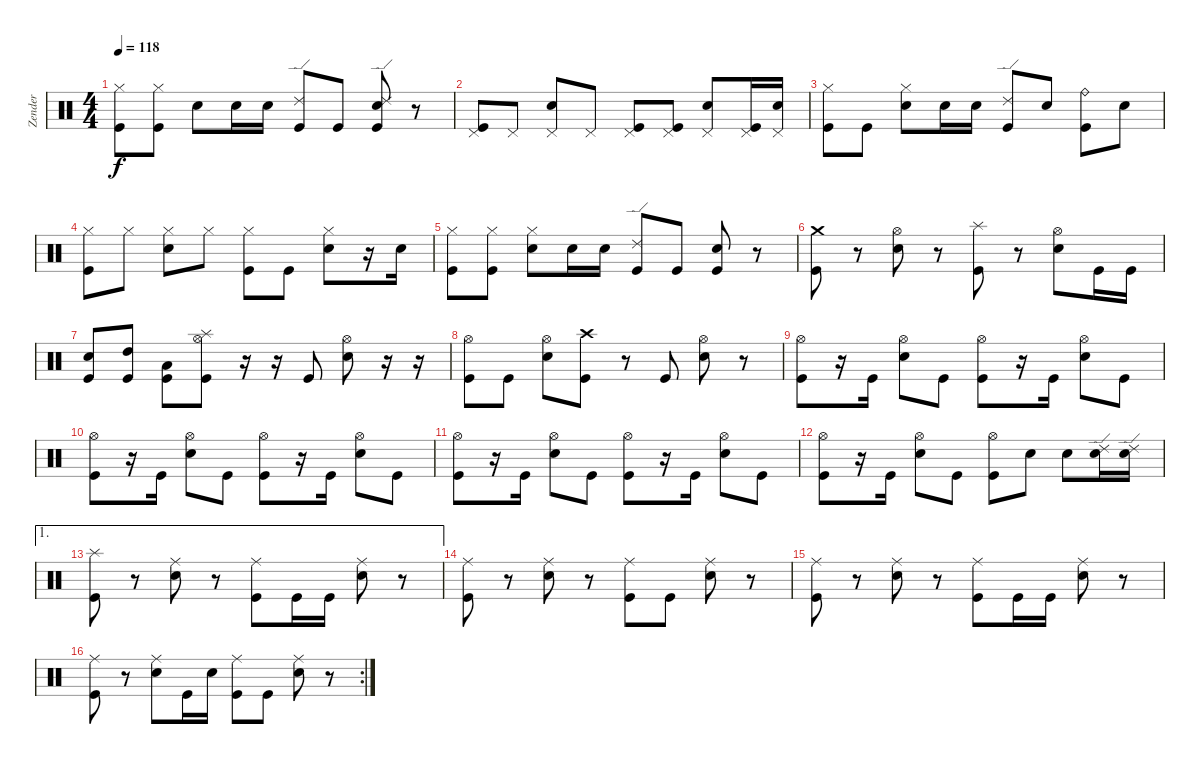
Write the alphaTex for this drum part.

\track ("Zender" "Zender") {instrument percussion}
\staff {score}
\articulation defaults
\ts (4 4)
\tempo 118
\clef neutral
\ks c
("Hi-Hat (closed)" "Kick (hit)").8{dy f} ("Hi-Hat (closed)" "Kick (hit)").8 "Snare (hit) 2".8 "Snare (hit) 2".16 "Snare (hit) 2".16 ("Ride (edge) 2" "Kick (hit)").8 "Kick (hit)".8 ("Ride (edge) 2" "Snare (hit) 2" "Kick (hit)").8 r.8 |
("Pedal Hi-Hat (hit)" "Kick (hit)").8 "Pedal Hi-Hat (hit)".8 ("Pedal Hi-Hat (hit)" "Snare (hit) 2").8 "Pedal Hi-Hat (hit)".8 ("Pedal Hi-Hat (hit)" "Kick (hit)").8 ("Pedal Hi-Hat (hit)" "Kick (hit)").8 ("Pedal Hi-Hat (hit)" "Snare (hit) 2").8 ("Pedal Hi-Hat (hit)" "Kick (hit)").16 ("Pedal Hi-Hat (hit)" "Snare (hit) 2").16 |
("Hi-Hat (closed)" "Kick (hit)").8 "Kick (hit)".8 ("Hi-Hat (closed)" "Snare (hit) 2").8 "Snare (hit) 2".16 "Snare (hit) 2".16 ("Ride (edge) 2" "Kick (hit)").8 "Snare (hit) 2".8 ("Ride (bell)" "Kick (hit)").8 "Snare (hit) 2".8 |
("Hi-Hat (closed)" "Kick (hit)").8 "Hi-Hat (closed)".8 ("Hi-Hat (closed)" "Snare (hit) 2").8 "Hi-Hat (closed)".8 ("Hi-Hat (closed)" "Kick (hit)").8 "Kick (hit)".8 ("Hi-Hat (closed)" "Snare (hit) 2").8 r.16 "Snare (hit) 2".16 |
("Hi-Hat (closed)" "Kick (hit)").8 ("Hi-Hat (closed)" "Kick (hit)").8 ("Hi-Hat (closed)" "Snare (hit) 2").8 "Snare (hit) 2".16 "Snare (hit) 2".16 ("Ride (edge) 2" "Kick (hit)").8 "Kick (hit)".8 ("Snare (hit) 2" "Kick (hit)").8 r.8 |
("Crash medium (hit)" "Kick (hit)").8 r.8 ("Hi-Hat (open)" "Snare (hit) 2").8 r.8 ("Splash (hit)" "Kick (hit)").8 r.8 ("Hi-Hat (open)" "Snare (hit) 2").8 "Kick (hit)".16 "Kick (hit)".16 |
("Snare (hit) 2" "Kick (hit)").8 ("High Tom (hit)" "Kick (hit)").8 ("Low Tom (hit)" "Kick (hit)").8 ("Splash (hit)" "Hi-Hat (open)" "Kick (hit)").8 r.16 r.16 "Kick (hit)".8 ("Hi-Hat (open)" "Snare (hit) 2").8 r.16 r.16 |
("Hi-Hat (open)" "Kick (hit)").8 "Kick (hit)".8 ("Hi-Hat (open)" "Snare (hit) 2").8 ("Crash high (hit)" "Kick (hit)").8 r.8 "Kick (hit)".8 ("Hi-Hat (open)" "Snare (hit) 2").8 r.8 |
("Hi-Hat (open)" "Kick (hit)").8 r.16 "Kick (hit)".16 ("Hi-Hat (open)" "Snare (hit) 2").8 "Kick (hit)".8 ("Hi-Hat (open)" "Kick (hit)").8 r.16 "Kick (hit)".16 ("Hi-Hat (open)" "Snare (hit) 2").8 "Kick (hit)".8 |
("Hi-Hat (open)" "Kick (hit)").8 r.16 "Kick (hit)".16 ("Hi-Hat (open)" "Snare (hit) 2").8 "Kick (hit)".8 ("Hi-Hat (open)" "Kick (hit)").8 r.16 "Kick (hit)".16 ("Hi-Hat (open)" "Snare (hit) 2").8 "Kick (hit)".8 |
("Hi-Hat (open)" "Kick (hit)").8 r.16 "Kick (hit)".16 ("Hi-Hat (open)" "Snare (hit) 2").8 "Kick (hit)".8 ("Hi-Hat (open)" "Kick (hit)").8 r.16 "Kick (hit)".16 ("Hi-Hat (open)" "Snare (hit) 2").8 "Kick (hit)".8 |
("Hi-Hat (open)" "Kick (hit)").8 r.16 "Kick (hit)".16 ("Hi-Hat (open)" "Snare (hit) 2").8 "Kick (hit)".8 ("Hi-Hat (open)" "Kick (hit)").8 "Snare (hit) 2".8 "Snare (hit) 2".8 ("Ride (edge) 2" "Snare (hit) 2").16 ("Ride (edge) 2" "Snare (hit) 2").16 |
\ae 1
("Splash (hit)" "Kick (hit)").8 r.8 ("Ride (middle)" "Snare (hit) 2").8 r.8 ("Ride (middle)" "Kick (hit)").8 "Kick (hit)".16 "Kick (hit)".16 ("Ride (middle)" "Snare (hit) 2").8 r.8 |
("Ride (middle)" "Kick (hit)").8 r.8 ("Ride (middle)" "Snare (hit) 2").8 r.8 ("Ride (middle)" "Kick (hit)").8 "Kick (hit)".8 ("Ride (middle)" "Snare (hit) 2").8 r.8 |
("Ride (middle)" "Kick (hit)").8 r.8 ("Ride (middle)" "Snare (hit) 2").8 r.8 ("Ride (middle)" "Kick (hit)").8 "Kick (hit)".16 "Kick (hit)".16 ("Ride (middle)" "Snare (hit) 2").8 r.8 |
\rc 2
("Ride (middle)" "Kick (hit)").8 r.8 ("Ride (middle)" "Snare (hit) 2").8 "Kick (hit)".16 "Snare (hit) 2".16 ("Ride (middle)" "Kick (hit)").8 "Kick (hit)".8 ("Ride (middle)" "Snare (hit) 2").8 r.8
